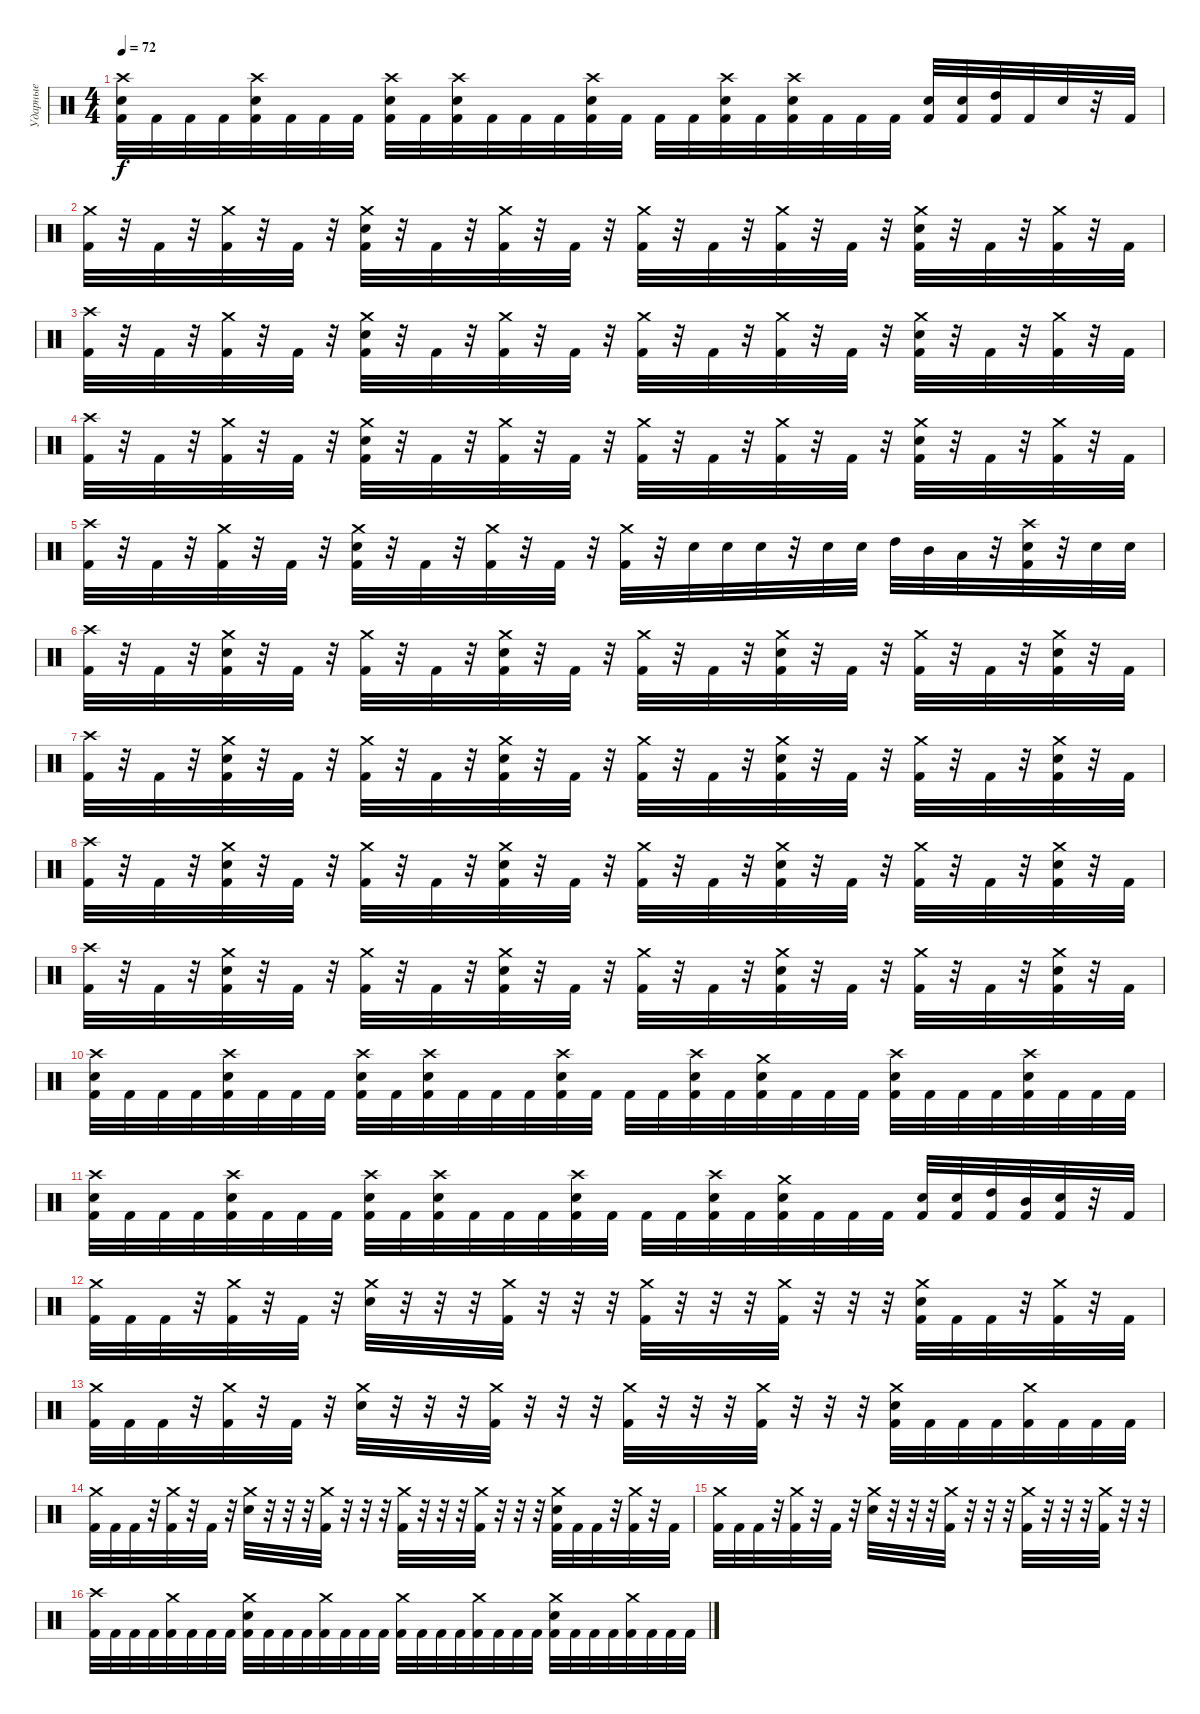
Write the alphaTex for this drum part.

\track ("Ударные" "Ударные") {instrument percussion}
\staff {score}
\articulation defaults
\ts (4 4)
\tempo 72
\clef neutral
\ks c
("Crash high (hit)" "Kick (hit) 2" "Electric Snare (hit)").32{dy f} "Kick (hit) 2".32 "Kick (hit) 2".32 "Kick (hit) 2".32 ("Crash high (hit)" "Kick (hit) 2" "Electric Snare (hit)").32 "Kick (hit) 2".32 "Kick (hit) 2".32 "Kick (hit) 2".32 ("Crash high (hit)" "Kick (hit) 2" "Electric Snare (hit)").32 "Kick (hit) 2".32 ("Crash high (hit)" "Kick (hit) 2" "Electric Snare (hit)").32 "Kick (hit) 2".32 "Kick (hit) 2".32 "Kick (hit) 2".32 ("Crash high (hit)" "Kick (hit) 2" "Electric Snare (hit)").32 "Kick (hit) 2".32 "Kick (hit) 2".32 "Kick (hit) 2".32 ("Crash high (hit)" "Kick (hit) 2" "Electric Snare (hit)").32 "Kick (hit) 2".32 ("Crash high (hit)" "Kick (hit) 2" "Electric Snare (hit)").32 "Kick (hit) 2".32 "Kick (hit) 2".32 "Kick (hit) 2".32 ("Kick (hit) 2" "Electric Snare (hit)").32 ("Kick (hit) 2" "Electric Snare (hit)").32 ("Kick (hit) 2" "High Tom (hit)").32 "Kick (hit) 2".32 "Electric Snare (hit)".32 r.32 "Kick (hit) 2".32 |
("Crash medium (hit)" "Kick (hit) 2").32 r.32 "Kick (hit) 2".32 r.32 ("Crash medium (hit)" "Kick (hit) 2").32 r.32 "Kick (hit) 2".32 r.32 ("Crash medium (hit)" "Kick (hit) 2" "Electric Snare (hit)").32 r.32 "Kick (hit) 2".32 r.32 ("Crash medium (hit)" "Kick (hit) 2").32 r.32 "Kick (hit) 2".32 r.32 ("Crash medium (hit)" "Kick (hit) 2").32 r.32 "Kick (hit) 2".32 r.32 ("Crash medium (hit)" "Kick (hit) 2").32 r.32 "Kick (hit) 2".32 r.32 ("Crash medium (hit)" "Kick (hit) 2" "Electric Snare (hit)").32 r.32 "Kick (hit) 2".32 r.32 ("Crash medium (hit)" "Kick (hit) 2").32 r.32 "Kick (hit) 2".32 |
("Crash high (hit)" "Kick (hit) 2").32 r.32 "Kick (hit) 2".32 r.32 ("Crash medium (hit)" "Kick (hit) 2").32 r.32 "Kick (hit) 2".32 r.32 ("Crash medium (hit)" "Kick (hit) 2" "Electric Snare (hit)").32 r.32 "Kick (hit) 2".32 r.32 ("Crash medium (hit)" "Kick (hit) 2").32 r.32 "Kick (hit) 2".32 r.32 ("Crash medium (hit)" "Kick (hit) 2").32 r.32 "Kick (hit) 2".32 r.32 ("Crash medium (hit)" "Kick (hit) 2").32 r.32 "Kick (hit) 2".32 r.32 ("Crash medium (hit)" "Kick (hit) 2" "Electric Snare (hit)").32 r.32 "Kick (hit) 2".32 r.32 ("Crash medium (hit)" "Kick (hit) 2").32 r.32 "Kick (hit) 2".32 |
("Crash high (hit)" "Kick (hit) 2").32 r.32 "Kick (hit) 2".32 r.32 ("Crash medium (hit)" "Kick (hit) 2").32 r.32 "Kick (hit) 2".32 r.32 ("Crash medium (hit)" "Kick (hit) 2" "Electric Snare (hit)").32 r.32 "Kick (hit) 2".32 r.32 ("Crash medium (hit)" "Kick (hit) 2").32 r.32 "Kick (hit) 2".32 r.32 ("Crash medium (hit)" "Kick (hit) 2").32 r.32 "Kick (hit) 2".32 r.32 ("Crash medium (hit)" "Kick (hit) 2").32 r.32 "Kick (hit) 2".32 r.32 ("Crash medium (hit)" "Kick (hit) 2" "Electric Snare (hit)").32 r.32 "Kick (hit) 2".32 r.32 ("Crash medium (hit)" "Kick (hit) 2").32 r.32 "Kick (hit) 2".32 |
("Crash high (hit)" "Kick (hit) 2").32 r.32 "Kick (hit) 2".32 r.32 ("Crash medium (hit)" "Kick (hit) 2").32 r.32 "Kick (hit) 2".32 r.32 ("Crash medium (hit)" "Kick (hit) 2" "Electric Snare (hit)").32 r.32 "Kick (hit) 2".32 r.32 ("Crash medium (hit)" "Kick (hit) 2").32 r.32 "Kick (hit) 2".32 r.32 ("Crash medium (hit)" "Kick (hit) 2").32 r.32 "Electric Snare (hit)".32 "Electric Snare (hit)".32 "Electric Snare (hit)".32 r.32 "Electric Snare (hit)".32 "Electric Snare (hit)".32 "High Tom (hit)".32 "Mid Tom (hit)".32 "Low Tom (hit)".32 r.32 ("Crash high (hit)" "Kick (hit) 2" "Electric Snare (hit)").32 r.32 "Electric Snare (hit)".32 "Electric Snare (hit)".32 |
("Crash high (hit)" "Kick (hit) 2").32 r.32 "Kick (hit) 2".32 r.32 ("Crash medium (hit)" "Kick (hit) 2" "Electric Snare (hit)").32 r.32 "Kick (hit) 2".32 r.32 ("Crash medium (hit)" "Kick (hit) 2").32 r.32 "Kick (hit) 2".32 r.32 ("Crash medium (hit)" "Kick (hit) 2" "Electric Snare (hit)").32 r.32 "Kick (hit) 2".32 r.32 ("Crash medium (hit)" "Kick (hit) 2").32 r.32 "Kick (hit) 2".32 r.32 ("Crash medium (hit)" "Kick (hit) 2" "Electric Snare (hit)").32 r.32 "Kick (hit) 2".32 r.32 ("Crash medium (hit)" "Kick (hit) 2").32 r.32 "Kick (hit) 2".32 r.32 ("Crash medium (hit)" "Kick (hit) 2" "Electric Snare (hit)").32 r.32 "Kick (hit) 2".32 |
("Crash high (hit)" "Kick (hit) 2").32 r.32 "Kick (hit) 2".32 r.32 ("Crash medium (hit)" "Kick (hit) 2" "Electric Snare (hit)").32 r.32 "Kick (hit) 2".32 r.32 ("Crash medium (hit)" "Kick (hit) 2").32 r.32 "Kick (hit) 2".32 r.32 ("Crash medium (hit)" "Kick (hit) 2" "Electric Snare (hit)").32 r.32 "Kick (hit) 2".32 r.32 ("Crash medium (hit)" "Kick (hit) 2").32 r.32 "Kick (hit) 2".32 r.32 ("Crash medium (hit)" "Kick (hit) 2" "Electric Snare (hit)").32 r.32 "Kick (hit) 2".32 r.32 ("Crash medium (hit)" "Kick (hit) 2").32 r.32 "Kick (hit) 2".32 r.32 ("Crash medium (hit)" "Kick (hit) 2" "Electric Snare (hit)").32 r.32 "Kick (hit) 2".32 |
("Crash high (hit)" "Kick (hit) 2").32 r.32 "Kick (hit) 2".32 r.32 ("Crash medium (hit)" "Kick (hit) 2" "Electric Snare (hit)").32 r.32 "Kick (hit) 2".32 r.32 ("Crash medium (hit)" "Kick (hit) 2").32 r.32 "Kick (hit) 2".32 r.32 ("Crash medium (hit)" "Kick (hit) 2" "Electric Snare (hit)").32 r.32 "Kick (hit) 2".32 r.32 ("Crash medium (hit)" "Kick (hit) 2").32 r.32 "Kick (hit) 2".32 r.32 ("Crash medium (hit)" "Kick (hit) 2" "Electric Snare (hit)").32 r.32 "Kick (hit) 2".32 r.32 ("Crash medium (hit)" "Kick (hit) 2").32 r.32 "Kick (hit) 2".32 r.32 ("Crash medium (hit)" "Kick (hit) 2" "Electric Snare (hit)").32 r.32 "Kick (hit) 2".32 |
("Crash high (hit)" "Kick (hit) 2").32 r.32 "Kick (hit) 2".32 r.32 ("Crash medium (hit)" "Kick (hit) 2" "Electric Snare (hit)").32 r.32 "Kick (hit) 2".32 r.32 ("Crash medium (hit)" "Kick (hit) 2").32 r.32 "Kick (hit) 2".32 r.32 ("Crash medium (hit)" "Kick (hit) 2" "Electric Snare (hit)").32 r.32 "Kick (hit) 2".32 r.32 ("Crash medium (hit)" "Kick (hit) 2").32 r.32 "Kick (hit) 2".32 r.32 ("Crash medium (hit)" "Kick (hit) 2" "Electric Snare (hit)").32 r.32 "Kick (hit) 2".32 r.32 ("Crash medium (hit)" "Kick (hit) 2").32 r.32 "Kick (hit) 2".32 r.32 ("Crash medium (hit)" "Kick (hit) 2" "Electric Snare (hit)").32 r.32 "Kick (hit) 2".32 |
("Crash high (hit)" "Electric Snare (hit)" "Kick (hit) 2").32 "Kick (hit) 2".32 "Kick (hit) 2".32 "Kick (hit) 2".32 ("Crash high (hit)" "Electric Snare (hit)" "Kick (hit) 2").32 "Kick (hit) 2".32 "Kick (hit) 2".32 "Kick (hit) 2".32 ("Crash high (hit)" "Electric Snare (hit)" "Kick (hit) 2").32 "Kick (hit) 2".32 ("Crash high (hit)" "Electric Snare (hit)" "Kick (hit) 2").32 "Kick (hit) 2".32 "Kick (hit) 2".32 "Kick (hit) 2".32 ("Crash high (hit)" "Electric Snare (hit)" "Kick (hit) 2").32 "Kick (hit) 2".32 "Kick (hit) 2".32 "Kick (hit) 2".32 ("Crash high (hit)" "Electric Snare (hit)" "Kick (hit) 2").32 "Kick (hit) 2".32 ("Crash medium (hit)" "Electric Snare (hit)" "Kick (hit) 2").32 "Kick (hit) 2".32 "Kick (hit) 2".32 "Kick (hit) 2".32 ("Crash high (hit)" "Electric Snare (hit)" "Kick (hit) 2").32 "Kick (hit) 2".32 "Kick (hit) 2".32 "Kick (hit) 2".32 ("Crash high (hit)" "Electric Snare (hit)" "Kick (hit) 2").32 "Kick (hit) 2".32 "Kick (hit) 2".32 "Kick (hit) 2".32 |
("Crash high (hit)" "Electric Snare (hit)" "Kick (hit) 2").32 "Kick (hit) 2".32 "Kick (hit) 2".32 "Kick (hit) 2".32 ("Crash high (hit)" "Electric Snare (hit)" "Kick (hit) 2").32 "Kick (hit) 2".32 "Kick (hit) 2".32 "Kick (hit) 2".32 ("Crash high (hit)" "Electric Snare (hit)" "Kick (hit) 2").32 "Kick (hit) 2".32 ("Crash high (hit)" "Electric Snare (hit)" "Kick (hit) 2").32 "Kick (hit) 2".32 "Kick (hit) 2".32 "Kick (hit) 2".32 ("Crash high (hit)" "Electric Snare (hit)" "Kick (hit) 2").32 "Kick (hit) 2".32 "Kick (hit) 2".32 "Kick (hit) 2".32 ("Crash high (hit)" "Electric Snare (hit)" "Kick (hit) 2").32 "Kick (hit) 2".32 ("Crash medium (hit)" "Electric Snare (hit)" "Kick (hit) 2").32 "Kick (hit) 2".32 "Kick (hit) 2".32 "Kick (hit) 2".32 ("Electric Snare (hit)" "Kick (hit) 2").32 ("Electric Snare (hit)" "Kick (hit) 2").32 ("High Tom (hit)" "Kick (hit) 2").32 ("Mid Tom (hit)" "Kick (hit) 2").32 ("Electric Snare (hit)" "Kick (hit) 2").32 r.32 "Kick (hit) 2".32 |
("Crash medium (hit)" "Kick (hit) 2").32 "Kick (hit) 2".32 "Kick (hit) 2".32 r.32 ("Crash medium (hit)" "Kick (hit) 2").32 r.32 "Kick (hit) 2".32 r.32 ("Crash medium (hit)" "Electric Snare (hit)").32 r.32 r.32 r.32 ("Crash medium (hit)" "Kick (hit) 2").32 r.32 r.32 r.32 ("Crash medium (hit)" "Kick (hit) 2").32 r.32 r.32 r.32 ("Crash medium (hit)" "Kick (hit) 2").32 r.32 r.32 r.32 ("Crash medium (hit)" "Electric Snare (hit)" "Kick (hit) 2").32 "Kick (hit) 2".32 "Kick (hit) 2".32 r.32 ("Crash medium (hit)" "Kick (hit) 2").32 r.32 "Kick (hit) 2".32 |
("Crash medium (hit)" "Kick (hit) 2").32 "Kick (hit) 2".32 "Kick (hit) 2".32 r.32 ("Crash medium (hit)" "Kick (hit) 2").32 r.32 "Kick (hit) 2".32 r.32 ("Crash medium (hit)" "Electric Snare (hit)").32 r.32 r.32 r.32 ("Crash medium (hit)" "Kick (hit) 2").32 r.32 r.32 r.32 ("Crash medium (hit)" "Kick (hit) 2").32 r.32 r.32 r.32 ("Crash medium (hit)" "Kick (hit) 2").32 r.32 r.32 r.32 ("Crash medium (hit)" "Electric Snare (hit)" "Kick (hit) 2").32 "Kick (hit) 2".32 "Kick (hit) 2".32 "Kick (hit) 2".32 ("Crash medium (hit)" "Kick (hit) 2").32 "Kick (hit) 2".32 "Kick (hit) 2".32 "Kick (hit) 2".32 |
("Crash medium (hit)" "Kick (hit) 2").32 "Kick (hit) 2".32 "Kick (hit) 2".32 r.32 ("Crash medium (hit)" "Kick (hit) 2").32 r.32 "Kick (hit) 2".32 r.32 ("Crash medium (hit)" "Electric Snare (hit)").32 r.32 r.32 r.32 ("Crash medium (hit)" "Kick (hit) 2").32 r.32 r.32 r.32 ("Crash medium (hit)" "Kick (hit) 2").32 r.32 r.32 r.32 ("Crash medium (hit)" "Kick (hit) 2").32 r.32 r.32 r.32 ("Crash medium (hit)" "Electric Snare (hit)" "Kick (hit) 2").32 "Kick (hit) 2".32 "Kick (hit) 2".32 r.32 ("Crash medium (hit)" "Kick (hit) 2").32 r.32 "Kick (hit) 2".32 |
("Crash medium (hit)" "Kick (hit) 2").32 "Kick (hit) 2".32 "Kick (hit) 2".32 r.32 ("Crash medium (hit)" "Kick (hit) 2").32 r.32 "Kick (hit) 2".32 r.32 ("Crash medium (hit)" "Electric Snare (hit)").32 r.32 r.32 r.32 ("Crash medium (hit)" "Kick (hit) 2").32 r.32 r.32 r.32 ("Crash medium (hit)" "Kick (hit) 2").32 r.32 r.32 r.32 ("Crash medium (hit)" "Kick (hit) 2").32 r.32 r.32 |
("Crash high (hit)" "Kick (hit) 2").32 "Kick (hit) 2".32 "Kick (hit) 2".32 "Kick (hit) 2".32 ("Crash medium (hit)" "Kick (hit) 2").32 "Kick (hit) 2".32 "Kick (hit) 2".32 "Kick (hit) 2".32 ("Crash medium (hit)" "Kick (hit) 2" "Electric Snare (hit)").32 "Kick (hit) 2".32 "Kick (hit) 2".32 "Kick (hit) 2".32 ("Crash medium (hit)" "Kick (hit) 2").32 "Kick (hit) 2".32 "Kick (hit) 2".32 "Kick (hit) 2".32 ("Crash medium (hit)" "Kick (hit) 2").32 "Kick (hit) 2".32 "Kick (hit) 2".32 "Kick (hit) 2".32 ("Crash medium (hit)" "Kick (hit) 2").32 "Kick (hit) 2".32 "Kick (hit) 2".32 "Kick (hit) 2".32 ("Crash medium (hit)" "Kick (hit) 2" "Electric Snare (hit)").32 "Kick (hit) 2".32 "Kick (hit) 2".32 "Kick (hit) 2".32 ("Crash medium (hit)" "Kick (hit) 2").32 "Kick (hit) 2".32 "Kick (hit) 2".32 "Kick (hit) 2".32
